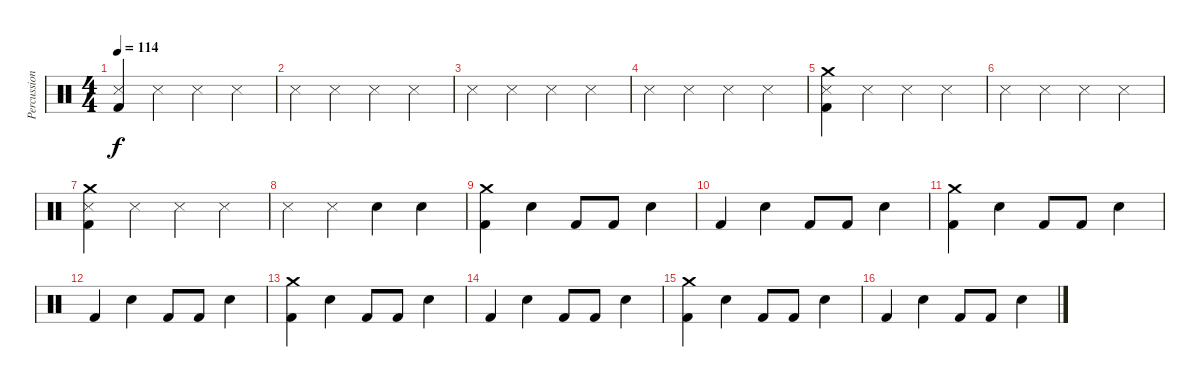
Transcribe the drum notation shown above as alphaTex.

\track ("Percussion" "Percussion") {instrument percussion}
\staff {score}
\articulation defaults
\ts (4 4)
\tempo 114
\clef neutral
\ks c
("Snare (side stick) 3" "Kick (hit) 2").4{dy f} "Snare (side stick) 3".4 "Snare (side stick) 3".4 "Snare (side stick) 3".4 |
"Snare (side stick) 3".4 "Snare (side stick) 3".4 "Snare (side stick) 3".4 "Snare (side stick) 3".4 |
"Snare (side stick) 3".4 "Snare (side stick) 3".4 "Snare (side stick) 3".4 "Snare (side stick) 3".4 |
"Snare (side stick) 3".4 "Snare (side stick) 3".4 "Snare (side stick) 3".4 "Snare (side stick) 3".4 |
("Snare (side stick) 3" "Kick (hit) 2" "Crash medium (hit)").4 "Snare (side stick) 3".4 "Snare (side stick) 3".4 "Snare (side stick) 3".4 |
"Snare (side stick) 3".4 "Snare (side stick) 3".4 "Snare (side stick) 3".4 "Snare (side stick) 3".4 |
("Snare (side stick) 3" "Kick (hit) 2" "Crash medium (hit)").4 "Snare (side stick) 3".4 "Snare (side stick) 3".4 "Snare (side stick) 3".4 |
"Snare (side stick) 3".4 "Snare (side stick) 3".4 "Snare (hit) 2".4 "Snare (hit) 2".4 |
("Crash medium (hit)" "Kick (hit) 2").4 "Snare (hit) 2".4 "Kick (hit) 2".8 "Kick (hit) 2".8 "Snare (hit) 2".4 |
"Kick (hit) 2".4 "Snare (hit) 2".4 "Kick (hit) 2".8 "Kick (hit) 2".8 "Snare (hit) 2".4 |
("Crash medium (hit)" "Kick (hit) 2").4 "Snare (hit) 2".4 "Kick (hit) 2".8 "Kick (hit) 2".8 "Snare (hit) 2".4 |
"Kick (hit) 2".4 "Snare (hit) 2".4 "Kick (hit) 2".8 "Kick (hit) 2".8 "Snare (hit) 2".4 |
("Crash medium (hit)" "Kick (hit) 2").4 "Snare (hit) 2".4 "Kick (hit) 2".8 "Kick (hit) 2".8 "Snare (hit) 2".4 |
"Kick (hit) 2".4 "Snare (hit) 2".4 "Kick (hit) 2".8 "Kick (hit) 2".8 "Snare (hit) 2".4 |
("Crash medium (hit)" "Kick (hit) 2").4 "Snare (hit) 2".4 "Kick (hit) 2".8 "Kick (hit) 2".8 "Snare (hit) 2".4 |
"Kick (hit) 2".4 "Snare (hit) 2".4 "Kick (hit) 2".8 "Kick (hit) 2".8 "Snare (hit) 2".4
